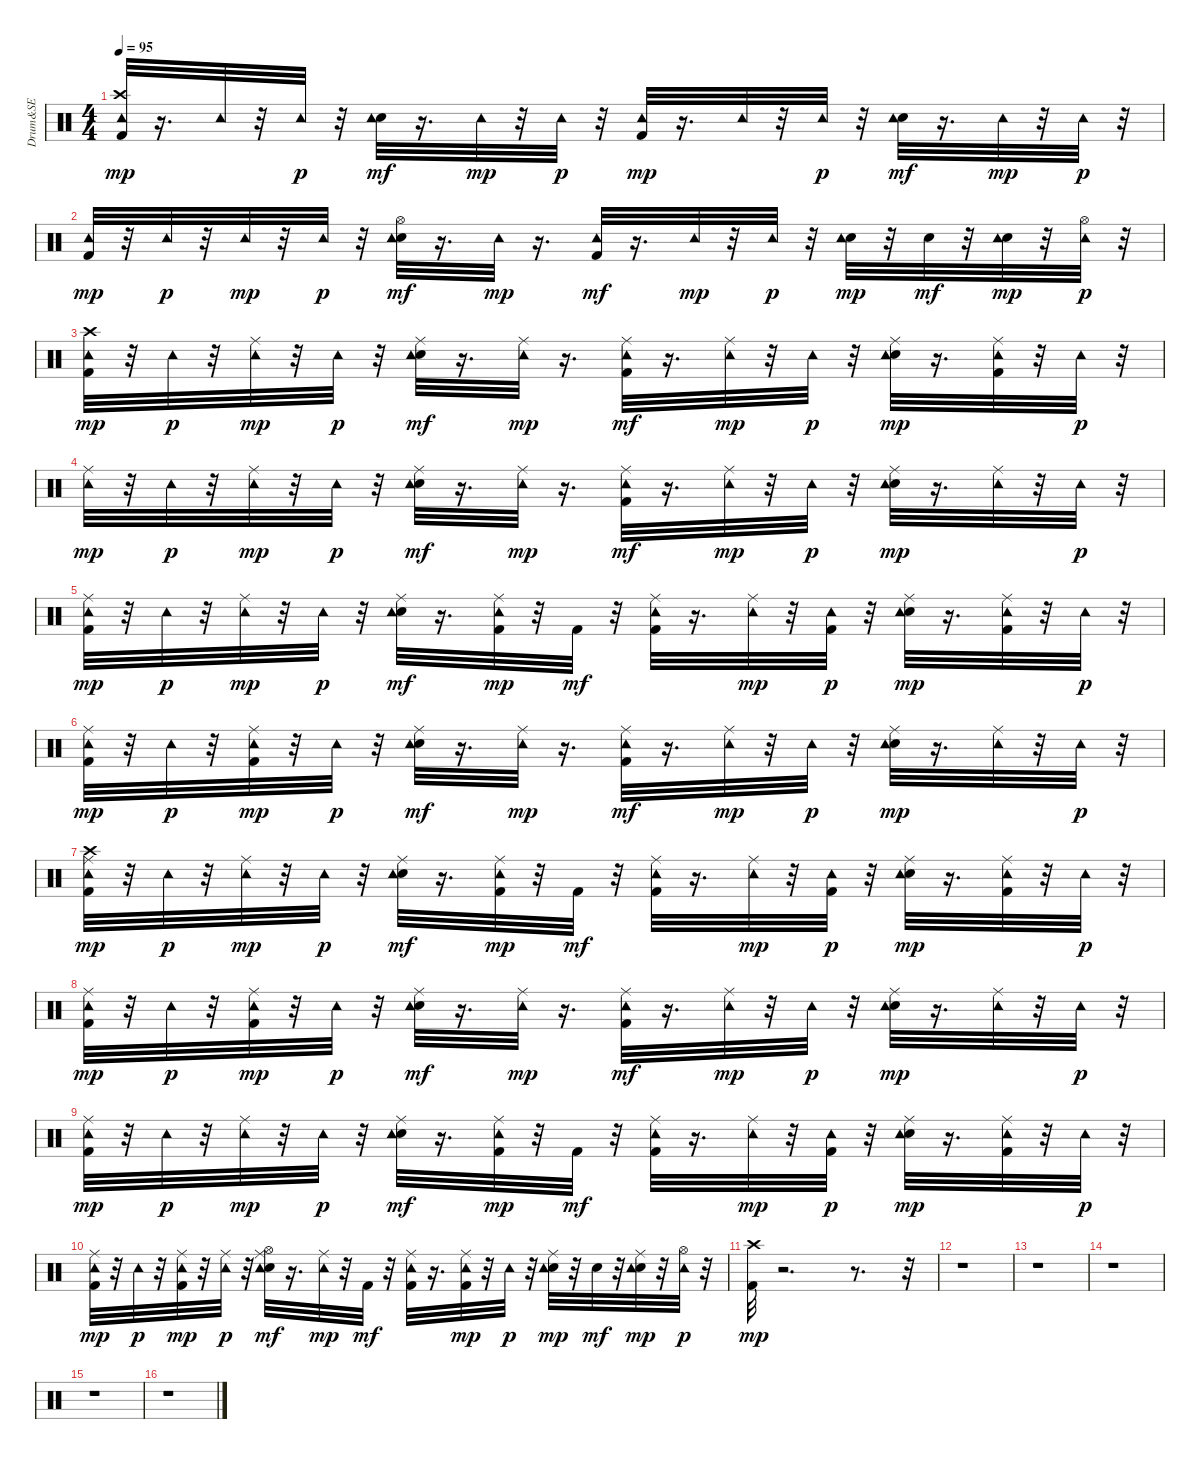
\track ("Drum&SE" "Drum&SE") {instrument percussion}
\staff {score}
\articulation defaults
\ts (4 4)
\tempo 95
\clef neutral
\ks c
("Kick (hit) 2" "Crash high (hit)" "Tambourine (hit)").32{dy mp} r.16{d} "Tambourine (hit)".32 r.32 "Tambourine (hit)".32{dy p} r.32 ("Snare (hit) 2" "Tambourine (hit)").32{dy mf} r.16{d} "Tambourine (hit)".32{dy mp} r.32 "Tambourine (hit)".32{dy p} r.32 ("Kick (hit) 2" "Tambourine (hit)").32{dy mp} r.16{d} "Tambourine (hit)".32 r.32 "Tambourine (hit)".32{dy p} r.32 ("Snare (hit) 2" "Tambourine (hit)").32{dy mf} r.16{d} "Tambourine (hit)".32{dy mp} r.32 "Tambourine (hit)".32{dy p} r.32 |
("Kick (hit) 2" "Tambourine (hit)").32{dy mp} r.32 "Tambourine (hit)".32{dy p} r.32 "Tambourine (hit)".32{dy mp} r.32 "Tambourine (hit)".32{dy p} r.32 ("Snare (hit) 2" "Hi-Hat (open)" "Tambourine (hit)").32{dy mf} r.16{d} "Tambourine (hit)".32{dy mp} r.16{d} ("Kick (hit) 2" "Tambourine (hit)").32{dy mf} r.16{d} "Tambourine (hit)".32{dy mp} r.32 "Tambourine (hit)".32{dy p} r.32 ("Snare (hit) 2" "Tambourine (hit)").32{dy mp} r.32 "Snare (hit) 2".32{dy mf} r.32 ("Snare (hit) 2" "Tambourine (hit)").32{dy mp} r.32 ("Hi-Hat (open)" "Tambourine (hit)").32{dy p} r.32 |
("Kick (hit) 2" "Crash high (hit)" "Tambourine (hit)").32{dy mp} r.32 "Tambourine (hit)".32{dy p} r.32 ("Ride (middle)" "Tambourine (hit)").32{dy mp} r.32 "Tambourine (hit)".32{dy p} r.32 ("Snare (hit) 2" "Ride (middle)" "Tambourine (hit)").32{dy mf} r.16{d} ("Ride (middle)" "Tambourine (hit)").32{dy mp} r.16{d} ("Kick (hit) 2" "Ride (middle)" "Tambourine (hit)").32{dy mf} r.16{d} ("Ride (middle)" "Tambourine (hit)").32{dy mp} r.32 "Tambourine (hit)".32{dy p} r.32 ("Snare (hit) 2" "Ride (middle)" "Tambourine (hit)").32{dy mp} r.16{d} ("Kick (hit) 2" "Ride (middle)" "Tambourine (hit)").32 r.32 "Tambourine (hit)".32{dy p} r.32 |
("Ride (middle)" "Tambourine (hit)").32{dy mp} r.32 "Tambourine (hit)".32{dy p} r.32 ("Ride (middle)" "Tambourine (hit)").32{dy mp} r.32 "Tambourine (hit)".32{dy p} r.32 ("Snare (hit) 2" "Ride (middle)" "Tambourine (hit)").32{dy mf} r.16{d} ("Ride (middle)" "Tambourine (hit)").32{dy mp} r.16{d} ("Kick (hit) 2" "Ride (middle)" "Tambourine (hit)").32{dy mf} r.16{d} ("Ride (middle)" "Tambourine (hit)").32{dy mp} r.32 "Tambourine (hit)".32{dy p} r.32 ("Snare (hit) 2" "Ride (middle)" "Tambourine (hit)").32{dy mp} r.16{d} ("Ride (middle)" "Tambourine (hit)").32 r.32 "Tambourine (hit)".32{dy p} r.32 |
("Ride (middle)" "Kick (hit) 2" "Tambourine (hit)").32{dy mp} r.32 "Tambourine (hit)".32{dy p} r.32 ("Ride (middle)" "Tambourine (hit)").32{dy mp} r.32 "Tambourine (hit)".32{dy p} r.32 ("Snare (hit) 2" "Ride (middle)" "Tambourine (hit)").32{dy mf} r.16{d} ("Ride (middle)" "Kick (hit) 2" "Tambourine (hit)").32{dy mp} r.32 "Kick (hit) 2".32{dy mf} r.32 ("Kick (hit) 2" "Ride (middle)" "Tambourine (hit)").32 r.16{d} ("Ride (middle)" "Tambourine (hit)").32{dy mp} r.32 ("Kick (hit) 2" "Tambourine (hit)").32{dy p} r.32 ("Snare (hit) 2" "Ride (middle)" "Tambourine (hit)").32{dy mp} r.16{d} ("Ride (middle)" "Kick (hit) 2" "Tambourine (hit)").32 r.32 "Tambourine (hit)".32{dy p} r.32 |
("Ride (middle)" "Kick (hit) 2" "Tambourine (hit)").32{dy mp} r.32 "Tambourine (hit)".32{dy p} r.32 ("Ride (middle)" "Kick (hit) 2" "Tambourine (hit)").32{dy mp} r.32 "Tambourine (hit)".32{dy p} r.32 ("Snare (hit) 2" "Ride (middle)" "Tambourine (hit)").32{dy mf} r.16{d} ("Ride (middle)" "Tambourine (hit)").32{dy mp} r.16{d} ("Kick (hit) 2" "Ride (middle)" "Tambourine (hit)").32{dy mf} r.16{d} ("Ride (middle)" "Tambourine (hit)").32{dy mp} r.32 "Tambourine (hit)".32{dy p} r.32 ("Snare (hit) 2" "Ride (middle)" "Tambourine (hit)").32{dy mp} r.16{d} ("Ride (middle)" "Tambourine (hit)").32 r.32 "Tambourine (hit)".32{dy p} r.32 |
("Ride (middle)" "Kick (hit) 2" "Crash high (hit)" "Tambourine (hit)").32{dy mp} r.32 "Tambourine (hit)".32{dy p} r.32 ("Ride (middle)" "Tambourine (hit)").32{dy mp} r.32 "Tambourine (hit)".32{dy p} r.32 ("Snare (hit) 2" "Ride (middle)" "Tambourine (hit)").32{dy mf} r.16{d} ("Ride (middle)" "Kick (hit) 2" "Tambourine (hit)").32{dy mp} r.32 "Kick (hit) 2".32{dy mf} r.32 ("Kick (hit) 2" "Ride (middle)" "Tambourine (hit)").32 r.16{d} ("Ride (middle)" "Tambourine (hit)").32{dy mp} r.32 ("Kick (hit) 2" "Tambourine (hit)").32{dy p} r.32 ("Snare (hit) 2" "Ride (middle)" "Tambourine (hit)").32{dy mp} r.16{d} ("Ride (middle)" "Kick (hit) 2" "Tambourine (hit)").32 r.32 "Tambourine (hit)".32{dy p} r.32 |
("Ride (middle)" "Kick (hit) 2" "Tambourine (hit)").32{dy mp} r.32 "Tambourine (hit)".32{dy p} r.32 ("Ride (middle)" "Kick (hit) 2" "Tambourine (hit)").32{dy mp} r.32 "Tambourine (hit)".32{dy p} r.32 ("Snare (hit) 2" "Ride (middle)" "Tambourine (hit)").32{dy mf} r.16{d} ("Ride (middle)" "Tambourine (hit)").32{dy mp} r.16{d} ("Kick (hit) 2" "Ride (middle)" "Tambourine (hit)").32{dy mf} r.16{d} ("Ride (middle)" "Tambourine (hit)").32{dy mp} r.32 "Tambourine (hit)".32{dy p} r.32 ("Snare (hit) 2" "Ride (middle)" "Tambourine (hit)").32{dy mp} r.16{d} ("Ride (middle)" "Tambourine (hit)").32 r.32 "Tambourine (hit)".32{dy p} r.32 |
("Ride (middle)" "Kick (hit) 2" "Tambourine (hit)").32{dy mp} r.32 "Tambourine (hit)".32{dy p} r.32 ("Ride (middle)" "Tambourine (hit)").32{dy mp} r.32 "Tambourine (hit)".32{dy p} r.32 ("Snare (hit) 2" "Ride (middle)" "Tambourine (hit)").32{dy mf} r.16{d} ("Ride (middle)" "Kick (hit) 2" "Tambourine (hit)").32{dy mp} r.32 "Kick (hit) 2".32{dy mf} r.32 ("Kick (hit) 2" "Ride (middle)" "Tambourine (hit)").32 r.16{d} ("Ride (middle)" "Tambourine (hit)").32{dy mp} r.32 ("Kick (hit) 2" "Tambourine (hit)").32{dy p} r.32 ("Snare (hit) 2" "Ride (middle)" "Tambourine (hit)").32{dy mp} r.16{d} ("Ride (middle)" "Kick (hit) 2" "Tambourine (hit)").32 r.32 "Tambourine (hit)".32{dy p} r.32 |
("Kick (hit) 2" "Ride (middle)" "Tambourine (hit)").32{dy mp} r.32 "Tambourine (hit)".32{dy p} r.32 ("Kick (hit) 2" "Ride (middle)" "Tambourine (hit)").32{dy mp} r.32 ("Ride (middle)" "Tambourine (hit)").32{dy p} r.32 ("Snare (hit) 2" "Hi-Hat (open)" "Ride (middle)" "Tambourine (hit)").32{dy mf} r.16{d} ("Ride (middle)" "Tambourine (hit)").32{dy mp} r.32 "Kick (hit) 2".32{dy mf} r.32 ("Kick (hit) 2" "Ride (middle)" "Tambourine (hit)").32 r.16{d} ("Kick (hit) 2" "Ride (middle)" "Tambourine (hit)").32{dy mp} r.32 "Tambourine (hit)".32{dy p} r.32 ("Snare (hit) 2" "Ride (middle)" "Tambourine (hit)").32{dy mp} r.32 "Snare (hit) 2".32{dy mf} r.32 ("Snare (hit) 2" "Ride (middle)" "Tambourine (hit)").32{dy mp} r.32 ("Hi-Hat (open)" "Tambourine (hit)").32{dy p} r.32 |
("Kick (hit) 2" "Crash high (hit)").32{dy mp} r.2{d} r.8{d} r.32 |
r.1 |
r.1 |
r.1 |
r.1 |
r.1
